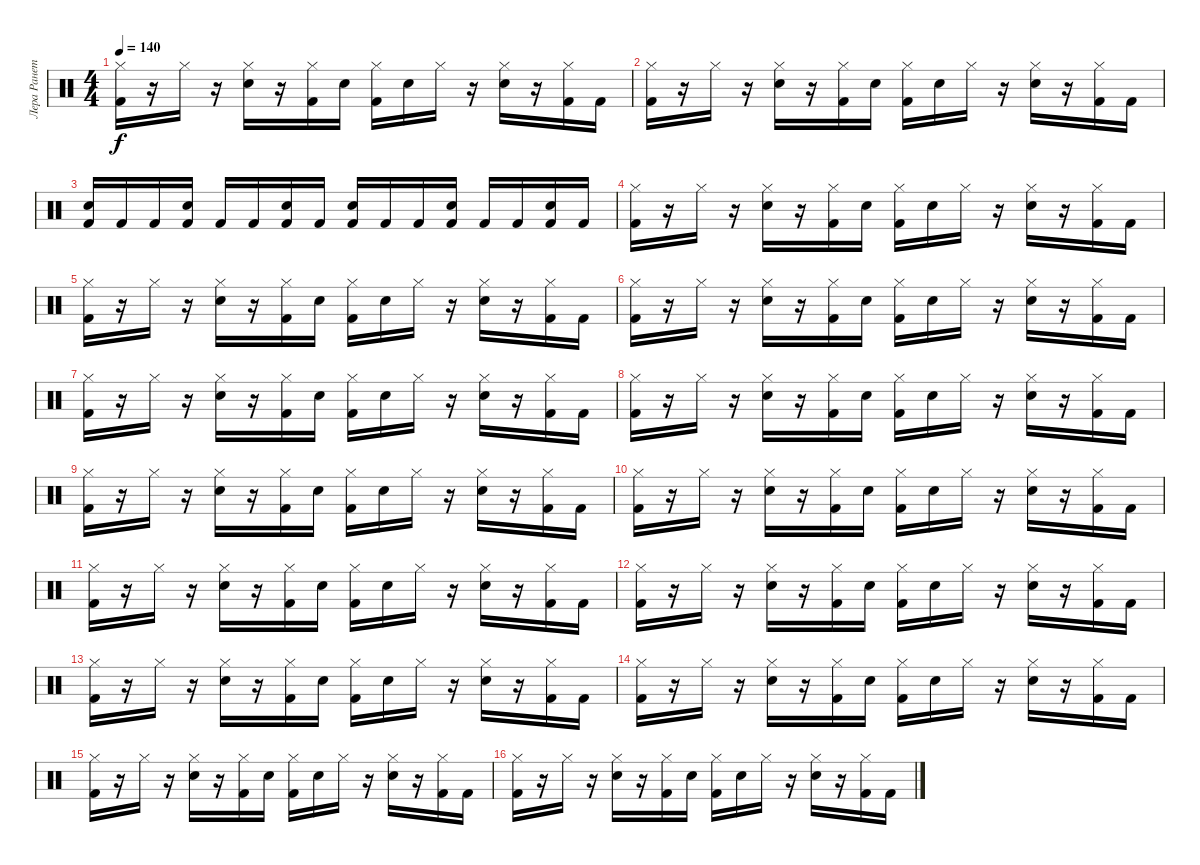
\track ("Лера Ранетка" "Лера Ранет") {instrument percussion}
\staff {score}
\articulation defaults
\ts (4 4)
\tempo 140
\clef neutral
\ks c
("Hi-Hat (closed)" "Kick (hit) 2").16{dy f} r.16 "Hi-Hat (closed)".16 r.16 ("Hi-Hat (closed)" "Snare (hit) 2").16 r.16 ("Hi-Hat (closed)" "Kick (hit) 2").16 "Snare (hit) 2".16 ("Hi-Hat (closed)" "Kick (hit) 2").16 "Snare (hit) 2".16 "Hi-Hat (closed)".16 r.16 ("Hi-Hat (closed)" "Snare (hit) 2").16 r.16 ("Hi-Hat (closed)" "Kick (hit) 2").16 "Kick (hit) 2".16 |
("Hi-Hat (closed)" "Kick (hit) 2").16 r.16 "Hi-Hat (closed)".16 r.16 ("Hi-Hat (closed)" "Snare (hit) 2").16 r.16 ("Hi-Hat (closed)" "Kick (hit) 2").16 "Snare (hit) 2".16 ("Hi-Hat (closed)" "Kick (hit) 2").16 "Snare (hit) 2".16 "Hi-Hat (closed)".16 r.16 ("Hi-Hat (closed)" "Snare (hit) 2").16 r.16 ("Hi-Hat (closed)" "Kick (hit) 2").16 "Kick (hit) 2".16 |
("Snare (hit) 2" "Kick (hit) 2").16 "Kick (hit) 2".16 "Kick (hit) 2".16 ("Snare (hit) 2" "Kick (hit) 2").16 "Kick (hit) 2".16 "Kick (hit) 2".16 ("Snare (hit) 2" "Kick (hit) 2").16 "Kick (hit) 2".16 ("Snare (hit) 2" "Kick (hit) 2").16 "Kick (hit) 2".16 "Kick (hit) 2".16 ("Snare (hit) 2" "Kick (hit) 2").16 "Kick (hit) 2".16 "Kick (hit) 2".16 ("Snare (hit) 2" "Kick (hit) 2").16 "Kick (hit) 2".16 |
("Hi-Hat (closed)" "Kick (hit) 2").16 r.16 "Hi-Hat (closed)".16 r.16 ("Hi-Hat (closed)" "Snare (hit) 2").16 r.16 ("Hi-Hat (closed)" "Kick (hit) 2").16 "Snare (hit) 2".16 ("Hi-Hat (closed)" "Kick (hit) 2").16 "Snare (hit) 2".16 "Hi-Hat (closed)".16 r.16 ("Hi-Hat (closed)" "Snare (hit) 2").16 r.16 ("Hi-Hat (closed)" "Kick (hit) 2").16 "Kick (hit) 2".16 |
("Hi-Hat (closed)" "Kick (hit) 2").16 r.16 "Hi-Hat (closed)".16 r.16 ("Hi-Hat (closed)" "Snare (hit) 2").16 r.16 ("Hi-Hat (closed)" "Kick (hit) 2").16 "Snare (hit) 2".16 ("Hi-Hat (closed)" "Kick (hit) 2").16 "Snare (hit) 2".16 "Hi-Hat (closed)".16 r.16 ("Hi-Hat (closed)" "Snare (hit) 2").16 r.16 ("Hi-Hat (closed)" "Kick (hit) 2").16 "Kick (hit) 2".16 |
("Hi-Hat (closed)" "Kick (hit) 2").16 r.16 "Hi-Hat (closed)".16 r.16 ("Hi-Hat (closed)" "Snare (hit) 2").16 r.16 ("Hi-Hat (closed)" "Kick (hit) 2").16 "Snare (hit) 2".16 ("Hi-Hat (closed)" "Kick (hit) 2").16 "Snare (hit) 2".16 "Hi-Hat (closed)".16 r.16 ("Hi-Hat (closed)" "Snare (hit) 2").16 r.16 ("Hi-Hat (closed)" "Kick (hit) 2").16 "Kick (hit) 2".16 |
("Hi-Hat (closed)" "Kick (hit) 2").16 r.16 "Hi-Hat (closed)".16 r.16 ("Hi-Hat (closed)" "Snare (hit) 2").16 r.16 ("Hi-Hat (closed)" "Kick (hit) 2").16 "Snare (hit) 2".16 ("Hi-Hat (closed)" "Kick (hit) 2").16 "Snare (hit) 2".16 "Hi-Hat (closed)".16 r.16 ("Hi-Hat (closed)" "Snare (hit) 2").16 r.16 ("Hi-Hat (closed)" "Kick (hit) 2").16 "Kick (hit) 2".16 |
("Hi-Hat (closed)" "Kick (hit) 2").16 r.16 "Hi-Hat (closed)".16 r.16 ("Hi-Hat (closed)" "Snare (hit) 2").16 r.16 ("Hi-Hat (closed)" "Kick (hit) 2").16 "Snare (hit) 2".16 ("Hi-Hat (closed)" "Kick (hit) 2").16 "Snare (hit) 2".16 "Hi-Hat (closed)".16 r.16 ("Hi-Hat (closed)" "Snare (hit) 2").16 r.16 ("Hi-Hat (closed)" "Kick (hit) 2").16 "Kick (hit) 2".16 |
("Hi-Hat (closed)" "Kick (hit) 2").16 r.16 "Hi-Hat (closed)".16 r.16 ("Hi-Hat (closed)" "Snare (hit) 2").16 r.16 ("Hi-Hat (closed)" "Kick (hit) 2").16 "Snare (hit) 2".16 ("Hi-Hat (closed)" "Kick (hit) 2").16 "Snare (hit) 2".16 "Hi-Hat (closed)".16 r.16 ("Hi-Hat (closed)" "Snare (hit) 2").16 r.16 ("Hi-Hat (closed)" "Kick (hit) 2").16 "Kick (hit) 2".16 |
("Hi-Hat (closed)" "Kick (hit) 2").16 r.16 "Hi-Hat (closed)".16 r.16 ("Hi-Hat (closed)" "Snare (hit) 2").16 r.16 ("Hi-Hat (closed)" "Kick (hit) 2").16 "Snare (hit) 2".16 ("Hi-Hat (closed)" "Kick (hit) 2").16 "Snare (hit) 2".16 "Hi-Hat (closed)".16 r.16 ("Hi-Hat (closed)" "Snare (hit) 2").16 r.16 ("Hi-Hat (closed)" "Kick (hit) 2").16 "Kick (hit) 2".16 |
("Hi-Hat (closed)" "Kick (hit) 2").16 r.16 "Hi-Hat (closed)".16 r.16 ("Hi-Hat (closed)" "Snare (hit) 2").16 r.16 ("Hi-Hat (closed)" "Kick (hit) 2").16 "Snare (hit) 2".16 ("Hi-Hat (closed)" "Kick (hit) 2").16 "Snare (hit) 2".16 "Hi-Hat (closed)".16 r.16 ("Hi-Hat (closed)" "Snare (hit) 2").16 r.16 ("Hi-Hat (closed)" "Kick (hit) 2").16 "Kick (hit) 2".16 |
("Hi-Hat (closed)" "Kick (hit) 2").16 r.16 "Hi-Hat (closed)".16 r.16 ("Hi-Hat (closed)" "Snare (hit) 2").16 r.16 ("Hi-Hat (closed)" "Kick (hit) 2").16 "Snare (hit) 2".16 ("Hi-Hat (closed)" "Kick (hit) 2").16 "Snare (hit) 2".16 "Hi-Hat (closed)".16 r.16 ("Hi-Hat (closed)" "Snare (hit) 2").16 r.16 ("Hi-Hat (closed)" "Kick (hit) 2").16 "Kick (hit) 2".16 |
("Hi-Hat (closed)" "Kick (hit) 2").16 r.16 "Hi-Hat (closed)".16 r.16 ("Hi-Hat (closed)" "Snare (hit) 2").16 r.16 ("Hi-Hat (closed)" "Kick (hit) 2").16 "Snare (hit) 2".16 ("Hi-Hat (closed)" "Kick (hit) 2").16 "Snare (hit) 2".16 "Hi-Hat (closed)".16 r.16 ("Hi-Hat (closed)" "Snare (hit) 2").16 r.16 ("Hi-Hat (closed)" "Kick (hit) 2").16 "Kick (hit) 2".16 |
("Hi-Hat (closed)" "Kick (hit) 2").16 r.16 "Hi-Hat (closed)".16 r.16 ("Hi-Hat (closed)" "Snare (hit) 2").16 r.16 ("Hi-Hat (closed)" "Kick (hit) 2").16 "Snare (hit) 2".16 ("Hi-Hat (closed)" "Kick (hit) 2").16 "Snare (hit) 2".16 "Hi-Hat (closed)".16 r.16 ("Hi-Hat (closed)" "Snare (hit) 2").16 r.16 ("Hi-Hat (closed)" "Kick (hit) 2").16 "Kick (hit) 2".16 |
("Hi-Hat (closed)" "Kick (hit) 2").16 r.16 "Hi-Hat (closed)".16 r.16 ("Hi-Hat (closed)" "Snare (hit) 2").16 r.16 ("Hi-Hat (closed)" "Kick (hit) 2").16 "Snare (hit) 2".16 ("Hi-Hat (closed)" "Kick (hit) 2").16 "Snare (hit) 2".16 "Hi-Hat (closed)".16 r.16 ("Hi-Hat (closed)" "Snare (hit) 2").16 r.16 ("Hi-Hat (closed)" "Kick (hit) 2").16 "Kick (hit) 2".16 |
("Hi-Hat (closed)" "Kick (hit) 2").16 r.16 "Hi-Hat (closed)".16 r.16 ("Hi-Hat (closed)" "Snare (hit) 2").16 r.16 ("Hi-Hat (closed)" "Kick (hit) 2").16 "Snare (hit) 2".16 ("Hi-Hat (closed)" "Kick (hit) 2").16 "Snare (hit) 2".16 "Hi-Hat (closed)".16 r.16 ("Hi-Hat (closed)" "Snare (hit) 2").16 r.16 ("Hi-Hat (closed)" "Kick (hit) 2").16 "Kick (hit) 2".16
